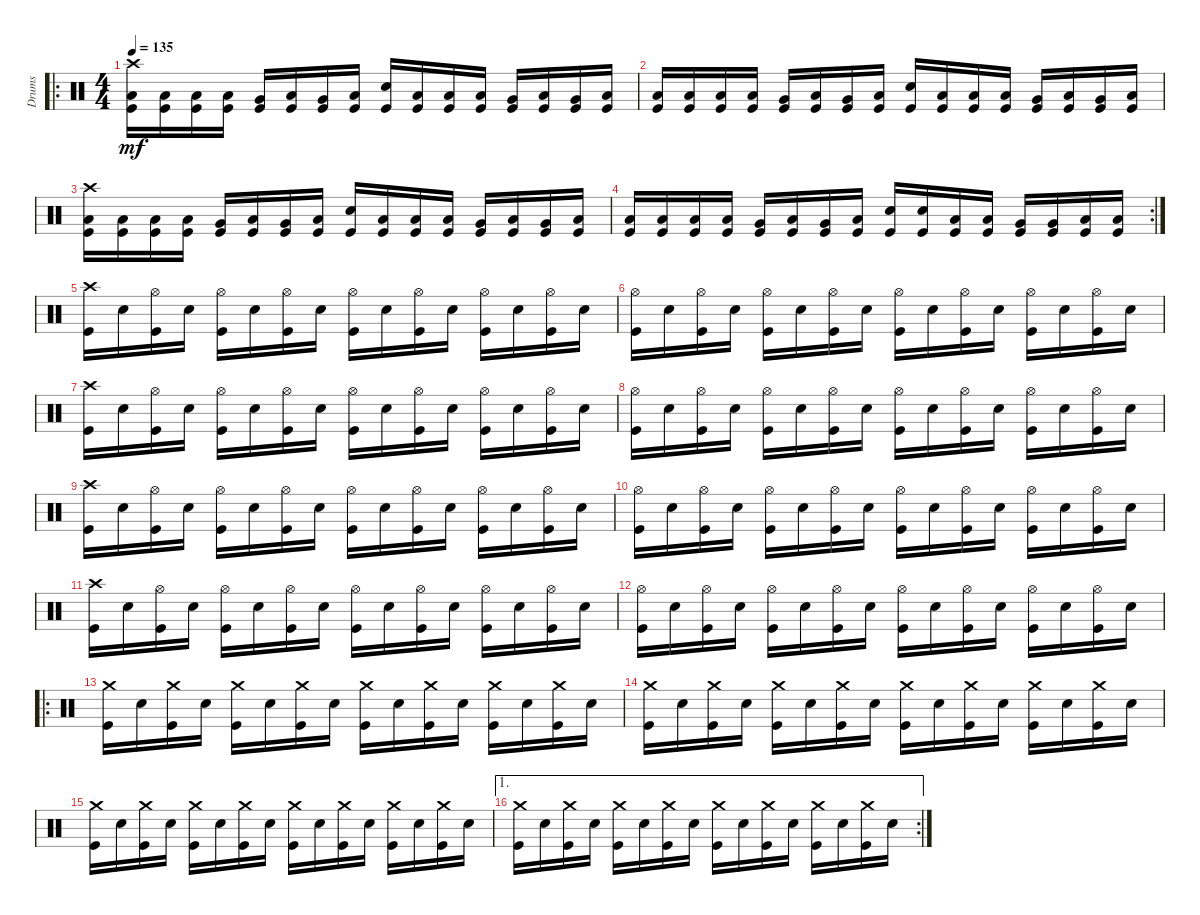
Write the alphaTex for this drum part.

\track ("Drums" "Drums") {instrument percussion}
\staff {score}
\articulation defaults
\ro
\ts (4 4)
\tempo 135
\clef neutral
\ks c
("Crash high (hit)" "Low Floor Tom (hit)" "Kick (hit)").16{dy mf} ("Low Floor Tom (hit)" "Kick (hit)").16 ("Low Floor Tom (hit)" "Kick (hit)").16 ("Low Floor Tom (hit)" "Kick (hit)").16 ("Very Low Tom (hit)" "Kick (hit)").16 ("Low Floor Tom (hit)" "Kick (hit)").16 ("Very Low Tom (hit)" "Kick (hit)").16 ("Low Floor Tom (hit)" "Kick (hit)").16 ("Snare (hit) 2" "Kick (hit)").16 ("Low Floor Tom (hit)" "Kick (hit)").16 ("Low Floor Tom (hit)" "Kick (hit)").16 ("Low Floor Tom (hit)" "Kick (hit)").16 ("Very Low Tom (hit)" "Kick (hit)").16 ("Low Floor Tom (hit)" "Kick (hit)").16 ("Very Low Tom (hit)" "Kick (hit)").16 ("Low Floor Tom (hit)" "Kick (hit)").16 |
("Low Floor Tom (hit)" "Kick (hit)").16 ("Low Floor Tom (hit)" "Kick (hit)").16 ("Low Floor Tom (hit)" "Kick (hit)").16 ("Low Floor Tom (hit)" "Kick (hit)").16 ("Very Low Tom (hit)" "Kick (hit)").16 ("Low Floor Tom (hit)" "Kick (hit)").16 ("Very Low Tom (hit)" "Kick (hit)").16 ("Low Floor Tom (hit)" "Kick (hit)").16 ("Snare (hit) 2" "Kick (hit)").16 ("Low Floor Tom (hit)" "Kick (hit)").16 ("Low Floor Tom (hit)" "Kick (hit)").16 ("Low Floor Tom (hit)" "Kick (hit)").16 ("Very Low Tom (hit)" "Kick (hit)").16 ("Low Floor Tom (hit)" "Kick (hit)").16 ("Very Low Tom (hit)" "Kick (hit)").16 ("Low Floor Tom (hit)" "Kick (hit)").16 |
("Crash high (hit)" "Low Floor Tom (hit)" "Kick (hit)").16 ("Low Floor Tom (hit)" "Kick (hit)").16 ("Low Floor Tom (hit)" "Kick (hit)").16 ("Low Floor Tom (hit)" "Kick (hit)").16 ("Very Low Tom (hit)" "Kick (hit)").16 ("Low Floor Tom (hit)" "Kick (hit)").16 ("Very Low Tom (hit)" "Kick (hit)").16 ("Low Floor Tom (hit)" "Kick (hit)").16 ("Snare (hit) 2" "Kick (hit)").16 ("Low Floor Tom (hit)" "Kick (hit)").16 ("Low Floor Tom (hit)" "Kick (hit)").16 ("Low Floor Tom (hit)" "Kick (hit)").16 ("Very Low Tom (hit)" "Kick (hit)").16 ("Low Floor Tom (hit)" "Kick (hit)").16 ("Very Low Tom (hit)" "Kick (hit)").16 ("Low Floor Tom (hit)" "Kick (hit)").16 |
\rc 2
("Low Floor Tom (hit)" "Kick (hit)").16 ("Low Floor Tom (hit)" "Kick (hit)").16 ("Low Floor Tom (hit)" "Kick (hit)").16 ("Low Floor Tom (hit)" "Kick (hit)").16 ("Very Low Tom (hit)" "Kick (hit)").16 ("Low Floor Tom (hit)" "Kick (hit)").16 ("Very Low Tom (hit)" "Kick (hit)").16 ("Low Floor Tom (hit)" "Kick (hit)").16 ("Snare (hit) 2" "Kick (hit)").16 ("Snare (hit) 2" "Kick (hit)").16 ("Low Tom (hit)" "Kick (hit)").16 ("Low Tom (hit)" "Kick (hit)").16 ("Very Low Tom (hit)" "Kick (hit)").16 ("Very Low Tom (hit)" "Kick (hit)").16 ("Low Floor Tom (hit)" "Kick (hit)").16 ("Low Floor Tom (hit)" "Kick (hit)").16 |
("Crash high (hit)" "Kick (hit)").16 "Snare (hit) 2".16 ("Hi-Hat (open)" "Kick (hit)").16 "Snare (hit) 2".16 ("Hi-Hat (open)" "Kick (hit)").16 "Snare (hit) 2".16 ("Hi-Hat (open)" "Kick (hit)").16 "Snare (hit) 2".16 ("Hi-Hat (open)" "Kick (hit)").16 "Snare (hit) 2".16 ("Hi-Hat (open)" "Kick (hit)").16 "Snare (hit) 2".16 ("Hi-Hat (open)" "Kick (hit)").16 "Snare (hit) 2".16 ("Hi-Hat (open)" "Kick (hit)").16 "Snare (hit) 2".16 |
("Hi-Hat (open)" "Kick (hit)").16 "Snare (hit) 2".16 ("Hi-Hat (open)" "Kick (hit)").16 "Snare (hit) 2".16 ("Hi-Hat (open)" "Kick (hit)").16 "Snare (hit) 2".16 ("Hi-Hat (open)" "Kick (hit)").16 "Snare (hit) 2".16 ("Hi-Hat (open)" "Kick (hit)").16 "Snare (hit) 2".16 ("Hi-Hat (open)" "Kick (hit)").16 "Snare (hit) 2".16 ("Hi-Hat (open)" "Kick (hit)").16 "Snare (hit) 2".16 ("Hi-Hat (open)" "Kick (hit)").16 "Snare (hit) 2".16 |
("Crash high (hit)" "Kick (hit)").16 "Snare (hit) 2".16 ("Hi-Hat (open)" "Kick (hit)").16 "Snare (hit) 2".16 ("Hi-Hat (open)" "Kick (hit)").16 "Snare (hit) 2".16 ("Hi-Hat (open)" "Kick (hit)").16 "Snare (hit) 2".16 ("Hi-Hat (open)" "Kick (hit)").16 "Snare (hit) 2".16 ("Hi-Hat (open)" "Kick (hit)").16 "Snare (hit) 2".16 ("Hi-Hat (open)" "Kick (hit)").16 "Snare (hit) 2".16 ("Hi-Hat (open)" "Kick (hit)").16 "Snare (hit) 2".16 |
("Hi-Hat (open)" "Kick (hit)").16 "Snare (hit) 2".16 ("Hi-Hat (open)" "Kick (hit)").16 "Snare (hit) 2".16 ("Hi-Hat (open)" "Kick (hit)").16 "Snare (hit) 2".16 ("Hi-Hat (open)" "Kick (hit)").16 "Snare (hit) 2".16 ("Hi-Hat (open)" "Kick (hit)").16 "Snare (hit) 2".16 ("Hi-Hat (open)" "Kick (hit)").16 "Snare (hit) 2".16 ("Hi-Hat (open)" "Kick (hit)").16 "Snare (hit) 2".16 ("Hi-Hat (open)" "Kick (hit)").16 "Snare (hit) 2".16 |
("Crash high (hit)" "Kick (hit)").16 "Snare (hit) 2".16 ("Hi-Hat (open)" "Kick (hit)").16 "Snare (hit) 2".16 ("Hi-Hat (open)" "Kick (hit)").16 "Snare (hit) 2".16 ("Hi-Hat (open)" "Kick (hit)").16 "Snare (hit) 2".16 ("Hi-Hat (open)" "Kick (hit)").16 "Snare (hit) 2".16 ("Hi-Hat (open)" "Kick (hit)").16 "Snare (hit) 2".16 ("Hi-Hat (open)" "Kick (hit)").16 "Snare (hit) 2".16 ("Hi-Hat (open)" "Kick (hit)").16 "Snare (hit) 2".16 |
("Hi-Hat (open)" "Kick (hit)").16 "Snare (hit) 2".16 ("Hi-Hat (open)" "Kick (hit)").16 "Snare (hit) 2".16 ("Hi-Hat (open)" "Kick (hit)").16 "Snare (hit) 2".16 ("Hi-Hat (open)" "Kick (hit)").16 "Snare (hit) 2".16 ("Hi-Hat (open)" "Kick (hit)").16 "Snare (hit) 2".16 ("Hi-Hat (open)" "Kick (hit)").16 "Snare (hit) 2".16 ("Hi-Hat (open)" "Kick (hit)").16 "Snare (hit) 2".16 ("Hi-Hat (open)" "Kick (hit)").16 "Snare (hit) 2".16 |
("Crash high (hit)" "Kick (hit)").16 "Snare (hit) 2".16 ("Hi-Hat (open)" "Kick (hit)").16 "Snare (hit) 2".16 ("Hi-Hat (open)" "Kick (hit)").16 "Snare (hit) 2".16 ("Hi-Hat (open)" "Kick (hit)").16 "Snare (hit) 2".16 ("Hi-Hat (open)" "Kick (hit)").16 "Snare (hit) 2".16 ("Hi-Hat (open)" "Kick (hit)").16 "Snare (hit) 2".16 ("Hi-Hat (open)" "Kick (hit)").16 "Snare (hit) 2".16 ("Hi-Hat (open)" "Kick (hit)").16 "Snare (hit) 2".16 |
("Hi-Hat (open)" "Kick (hit)").16 "Snare (hit) 2".16 ("Hi-Hat (open)" "Kick (hit)").16 "Snare (hit) 2".16 ("Hi-Hat (open)" "Kick (hit)").16 "Snare (hit) 2".16 ("Hi-Hat (open)" "Kick (hit)").16 "Snare (hit) 2".16 ("Hi-Hat (open)" "Kick (hit)").16 "Snare (hit) 2".16 ("Hi-Hat (open)" "Kick (hit)").16 "Snare (hit) 2".16 ("Hi-Hat (open)" "Kick (hit)").16 "Snare (hit) 2".16 ("Hi-Hat (open)" "Kick (hit)").16 "Snare (hit) 2".16 |
\ro
("Crash medium (hit)" "Kick (hit)").16 "Snare (hit) 2".16 ("Crash medium (hit)" "Kick (hit)").16 "Snare (hit) 2".16 ("Crash medium (hit)" "Kick (hit)").16 "Snare (hit) 2".16 ("Crash medium (hit)" "Kick (hit)").16 "Snare (hit) 2".16 ("Crash medium (hit)" "Kick (hit)").16 "Snare (hit) 2".16 ("Crash medium (hit)" "Kick (hit)").16 "Snare (hit) 2".16 ("Crash medium (hit)" "Kick (hit)").16 "Snare (hit) 2".16 ("Crash medium (hit)" "Kick (hit)").16 "Snare (hit) 2".16 |
("Crash medium (hit)" "Kick (hit)").16 "Snare (hit) 2".16 ("Crash medium (hit)" "Kick (hit)").16 "Snare (hit) 2".16 ("Crash medium (hit)" "Kick (hit)").16 "Snare (hit) 2".16 ("Crash medium (hit)" "Kick (hit)").16 "Snare (hit) 2".16 ("Crash medium (hit)" "Kick (hit)").16 "Snare (hit) 2".16 ("Crash medium (hit)" "Kick (hit)").16 "Snare (hit) 2".16 ("Crash medium (hit)" "Kick (hit)").16 "Snare (hit) 2".16 ("Crash medium (hit)" "Kick (hit)").16 "Snare (hit) 2".16 |
("Crash medium (hit)" "Kick (hit)").16 "Snare (hit) 2".16 ("Crash medium (hit)" "Kick (hit)").16 "Snare (hit) 2".16 ("Crash medium (hit)" "Kick (hit)").16 "Snare (hit) 2".16 ("Crash medium (hit)" "Kick (hit)").16 "Snare (hit) 2".16 ("Crash medium (hit)" "Kick (hit)").16 "Snare (hit) 2".16 ("Crash medium (hit)" "Kick (hit)").16 "Snare (hit) 2".16 ("Crash medium (hit)" "Kick (hit)").16 "Snare (hit) 2".16 ("Crash medium (hit)" "Kick (hit)").16 "Snare (hit) 2".16 |
\ae 1
\rc 2
("Crash medium (hit)" "Kick (hit)").16 "Snare (hit) 2".16 ("Crash medium (hit)" "Kick (hit)").16 "Snare (hit) 2".16 ("Crash medium (hit)" "Kick (hit)").16 "Snare (hit) 2".16 ("Crash medium (hit)" "Kick (hit)").16 "Snare (hit) 2".16 ("Crash medium (hit)" "Kick (hit)").16 "Snare (hit) 2".16 ("Crash medium (hit)" "Kick (hit)").16 "Snare (hit) 2".16 ("Crash medium (hit)" "Kick (hit)").16 "Snare (hit) 2".16 ("Crash medium (hit)" "Kick (hit)").16 "Snare (hit) 2".16
